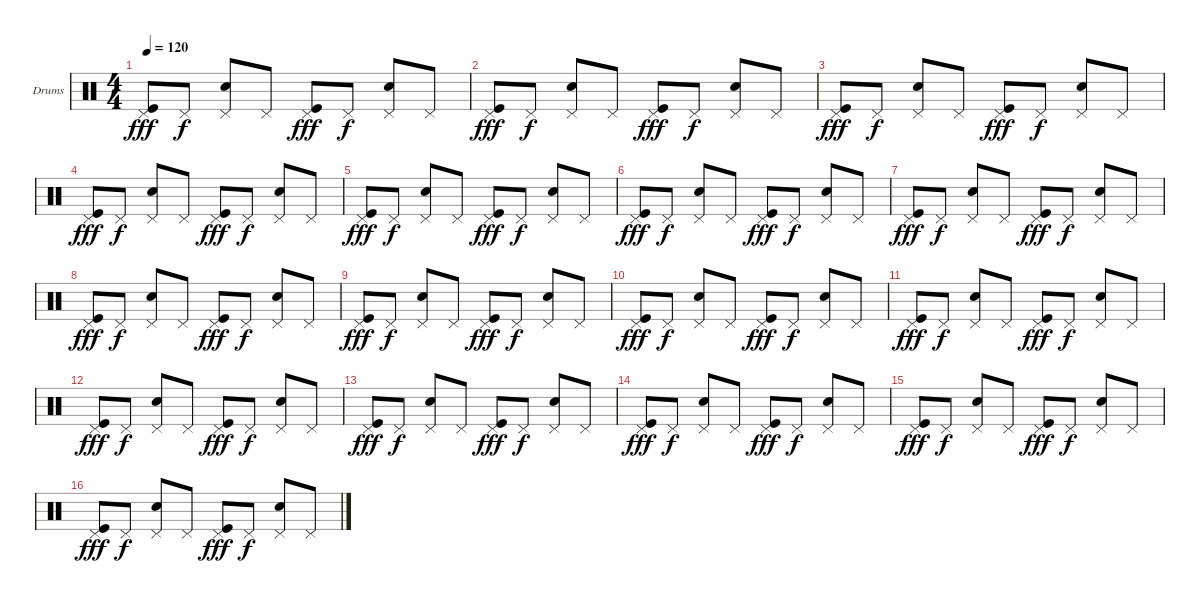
\bracketExtendMode groupsimilarinstruments
\firstSystemTrackNameOrientation horizontal
\otherSystemsTrackNameOrientation horizontal
\track ("Ударные" "Drums") {instrument percussion}
\staff {score}
\articulation defaults
\ts (4 4)
\tempo 120
\clef neutral
\ks c
("Kick (hit)" "Pedal Hi-Hat (hit)").8{dy fff} "Pedal Hi-Hat (hit)".8{dy f} ("Snare (hit) 2" "Pedal Hi-Hat (hit)").8 "Pedal Hi-Hat (hit)".8 ("Kick (hit)" "Pedal Hi-Hat (hit)").8{dy fff} "Pedal Hi-Hat (hit)".8{dy f} ("Snare (hit) 2" "Pedal Hi-Hat (hit)").8 "Pedal Hi-Hat (hit)".8 |
("Kick (hit)" "Pedal Hi-Hat (hit)").8{dy fff} "Pedal Hi-Hat (hit)".8{dy f} ("Snare (hit) 2" "Pedal Hi-Hat (hit)").8 "Pedal Hi-Hat (hit)".8 ("Kick (hit)" "Pedal Hi-Hat (hit)").8{dy fff} "Pedal Hi-Hat (hit)".8{dy f} ("Snare (hit) 2" "Pedal Hi-Hat (hit)").8 "Pedal Hi-Hat (hit)".8 |
("Kick (hit)" "Pedal Hi-Hat (hit)").8{dy fff} "Pedal Hi-Hat (hit)".8{dy f} ("Snare (hit) 2" "Pedal Hi-Hat (hit)").8 "Pedal Hi-Hat (hit)".8 ("Kick (hit)" "Pedal Hi-Hat (hit)").8{dy fff} "Pedal Hi-Hat (hit)".8{dy f} ("Snare (hit) 2" "Pedal Hi-Hat (hit)").8 "Pedal Hi-Hat (hit)".8 |
("Kick (hit)" "Pedal Hi-Hat (hit)").8{dy fff} "Pedal Hi-Hat (hit)".8{dy f} ("Snare (hit) 2" "Pedal Hi-Hat (hit)").8 "Pedal Hi-Hat (hit)".8 ("Kick (hit)" "Pedal Hi-Hat (hit)").8{dy fff} "Pedal Hi-Hat (hit)".8{dy f} ("Snare (hit) 2" "Pedal Hi-Hat (hit)").8 "Pedal Hi-Hat (hit)".8 |
("Kick (hit)" "Pedal Hi-Hat (hit)").8{dy fff} "Pedal Hi-Hat (hit)".8{dy f} ("Snare (hit) 2" "Pedal Hi-Hat (hit)").8 "Pedal Hi-Hat (hit)".8 ("Kick (hit)" "Pedal Hi-Hat (hit)").8{dy fff} "Pedal Hi-Hat (hit)".8{dy f} ("Snare (hit) 2" "Pedal Hi-Hat (hit)").8 "Pedal Hi-Hat (hit)".8 |
("Kick (hit)" "Pedal Hi-Hat (hit)").8{dy fff} "Pedal Hi-Hat (hit)".8{dy f} ("Snare (hit) 2" "Pedal Hi-Hat (hit)").8 "Pedal Hi-Hat (hit)".8 ("Kick (hit)" "Pedal Hi-Hat (hit)").8{dy fff} "Pedal Hi-Hat (hit)".8{dy f} ("Snare (hit) 2" "Pedal Hi-Hat (hit)").8 "Pedal Hi-Hat (hit)".8 |
("Kick (hit)" "Pedal Hi-Hat (hit)").8{dy fff} "Pedal Hi-Hat (hit)".8{dy f} ("Snare (hit) 2" "Pedal Hi-Hat (hit)").8 "Pedal Hi-Hat (hit)".8 ("Kick (hit)" "Pedal Hi-Hat (hit)").8{dy fff} "Pedal Hi-Hat (hit)".8{dy f} ("Snare (hit) 2" "Pedal Hi-Hat (hit)").8 "Pedal Hi-Hat (hit)".8 |
("Kick (hit)" "Pedal Hi-Hat (hit)").8{dy fff} "Pedal Hi-Hat (hit)".8{dy f} ("Snare (hit) 2" "Pedal Hi-Hat (hit)").8 "Pedal Hi-Hat (hit)".8 ("Kick (hit)" "Pedal Hi-Hat (hit)").8{dy fff} "Pedal Hi-Hat (hit)".8{dy f} ("Snare (hit) 2" "Pedal Hi-Hat (hit)").8 "Pedal Hi-Hat (hit)".8 |
("Kick (hit)" "Pedal Hi-Hat (hit)").8{dy fff} "Pedal Hi-Hat (hit)".8{dy f} ("Snare (hit) 2" "Pedal Hi-Hat (hit)").8 "Pedal Hi-Hat (hit)".8 ("Kick (hit)" "Pedal Hi-Hat (hit)").8{dy fff} "Pedal Hi-Hat (hit)".8{dy f} ("Snare (hit) 2" "Pedal Hi-Hat (hit)").8 "Pedal Hi-Hat (hit)".8 |
("Kick (hit)" "Pedal Hi-Hat (hit)").8{dy fff} "Pedal Hi-Hat (hit)".8{dy f} ("Snare (hit) 2" "Pedal Hi-Hat (hit)").8 "Pedal Hi-Hat (hit)".8 ("Kick (hit)" "Pedal Hi-Hat (hit)").8{dy fff} "Pedal Hi-Hat (hit)".8{dy f} ("Snare (hit) 2" "Pedal Hi-Hat (hit)").8 "Pedal Hi-Hat (hit)".8 |
("Kick (hit)" "Pedal Hi-Hat (hit)").8{dy fff} "Pedal Hi-Hat (hit)".8{dy f} ("Snare (hit) 2" "Pedal Hi-Hat (hit)").8 "Pedal Hi-Hat (hit)".8 ("Kick (hit)" "Pedal Hi-Hat (hit)").8{dy fff} "Pedal Hi-Hat (hit)".8{dy f} ("Snare (hit) 2" "Pedal Hi-Hat (hit)").8 "Pedal Hi-Hat (hit)".8 |
("Kick (hit)" "Pedal Hi-Hat (hit)").8{dy fff} "Pedal Hi-Hat (hit)".8{dy f} ("Snare (hit) 2" "Pedal Hi-Hat (hit)").8 "Pedal Hi-Hat (hit)".8 ("Kick (hit)" "Pedal Hi-Hat (hit)").8{dy fff} "Pedal Hi-Hat (hit)".8{dy f} ("Snare (hit) 2" "Pedal Hi-Hat (hit)").8 "Pedal Hi-Hat (hit)".8 |
("Kick (hit)" "Pedal Hi-Hat (hit)").8{dy fff} "Pedal Hi-Hat (hit)".8{dy f} ("Snare (hit) 2" "Pedal Hi-Hat (hit)").8 "Pedal Hi-Hat (hit)".8 ("Kick (hit)" "Pedal Hi-Hat (hit)").8{dy fff} "Pedal Hi-Hat (hit)".8{dy f} ("Snare (hit) 2" "Pedal Hi-Hat (hit)").8 "Pedal Hi-Hat (hit)".8 |
("Kick (hit)" "Pedal Hi-Hat (hit)").8{dy fff} "Pedal Hi-Hat (hit)".8{dy f} ("Snare (hit) 2" "Pedal Hi-Hat (hit)").8 "Pedal Hi-Hat (hit)".8 ("Kick (hit)" "Pedal Hi-Hat (hit)").8{dy fff} "Pedal Hi-Hat (hit)".8{dy f} ("Snare (hit) 2" "Pedal Hi-Hat (hit)").8 "Pedal Hi-Hat (hit)".8 |
("Kick (hit)" "Pedal Hi-Hat (hit)").8{dy fff} "Pedal Hi-Hat (hit)".8{dy f} ("Snare (hit) 2" "Pedal Hi-Hat (hit)").8 "Pedal Hi-Hat (hit)".8 ("Kick (hit)" "Pedal Hi-Hat (hit)").8{dy fff} "Pedal Hi-Hat (hit)".8{dy f} ("Snare (hit) 2" "Pedal Hi-Hat (hit)").8 "Pedal Hi-Hat (hit)".8 |
("Kick (hit)" "Pedal Hi-Hat (hit)").8{dy fff} "Pedal Hi-Hat (hit)".8{dy f} ("Snare (hit) 2" "Pedal Hi-Hat (hit)").8 "Pedal Hi-Hat (hit)".8 ("Kick (hit)" "Pedal Hi-Hat (hit)").8{dy fff} "Pedal Hi-Hat (hit)".8{dy f} ("Snare (hit) 2" "Pedal Hi-Hat (hit)").8 "Pedal Hi-Hat (hit)".8
